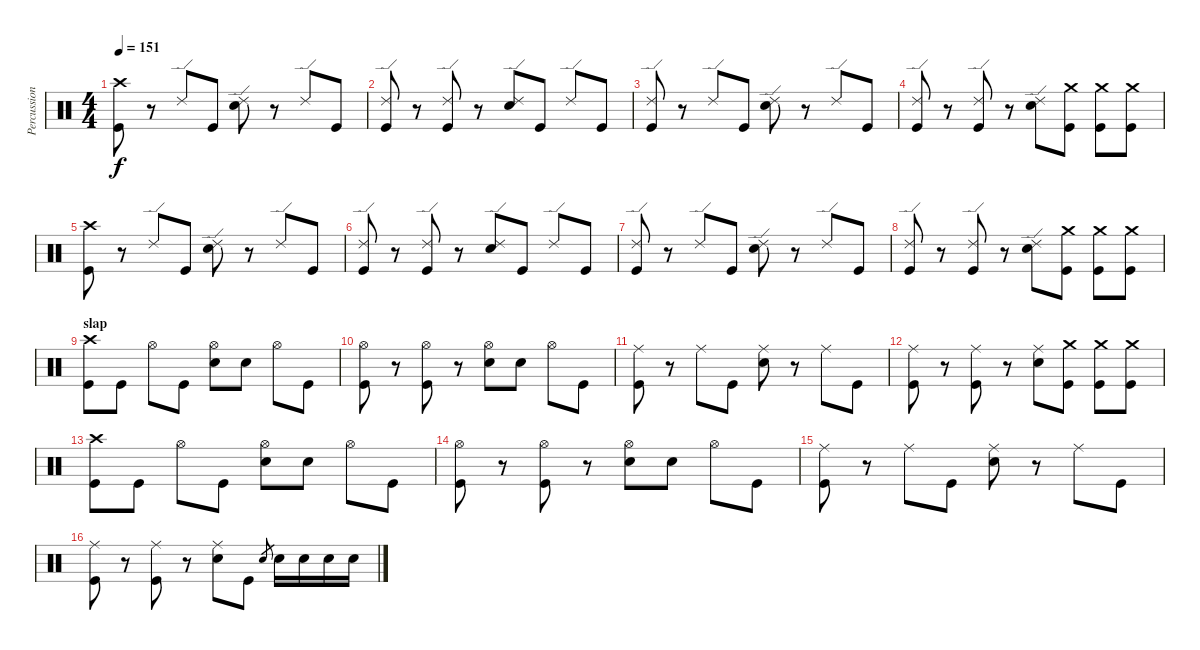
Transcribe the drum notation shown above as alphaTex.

\track ("Percussion" "Percussion") {instrument percussion}
\staff {score}
\articulation defaults
\ts (4 4)
\tempo 151
\clef neutral
\ks c
("Crash high (hit)" "Kick (hit)").8{dy f} r.8 "Ride (edge) 2".8 "Kick (hit)".8 ("Ride (edge) 2" "Electric Snare (hit)").8 r.8 "Ride (edge) 2".8 "Kick (hit)".8 |
("Ride (edge) 2" "Kick (hit)").8 r.8 ("Ride (edge) 2" "Kick (hit)").8 r.8 ("Ride (edge) 2" "Electric Snare (hit)").8 "Kick (hit)".8 "Ride (edge) 2".8 "Kick (hit)".8 |
("Ride (edge) 2" "Kick (hit)").8 r.8 "Ride (edge) 2".8 "Kick (hit)".8 ("Ride (edge) 2" "Electric Snare (hit)").8 r.8 "Ride (edge) 2".8 "Kick (hit)".8 |
("Ride (edge) 2" "Kick (hit)").8 r.8 ("Ride (edge) 2" "Kick (hit)").8 r.8 ("Ride (edge) 2" "Electric Snare (hit)").8 ("Crash medium (hit)" "Kick (hit)").8 ("Crash medium (hit)" "Kick (hit)").8 ("Crash medium (hit)" "Kick (hit)").8 |
("Crash high (hit)" "Kick (hit)").8 r.8 "Ride (edge) 2".8 "Kick (hit)".8 ("Ride (edge) 2" "Electric Snare (hit)").8 r.8 "Ride (edge) 2".8 "Kick (hit)".8 |
("Ride (edge) 2" "Kick (hit)").8 r.8 ("Ride (edge) 2" "Kick (hit)").8 r.8 ("Ride (edge) 2" "Electric Snare (hit)").8 "Kick (hit)".8 "Ride (edge) 2".8 "Kick (hit)".8 |
("Ride (edge) 2" "Kick (hit)").8 r.8 "Ride (edge) 2".8 "Kick (hit)".8 ("Ride (edge) 2" "Electric Snare (hit)").8 r.8 "Ride (edge) 2".8 "Kick (hit)".8 |
("Ride (edge) 2" "Kick (hit)").8 r.8 ("Ride (edge) 2" "Kick (hit)").8 r.8 ("Ride (edge) 2" "Electric Snare (hit)").8 ("Crash medium (hit)" "Kick (hit)").8 ("Crash medium (hit)" "Kick (hit)").8 ("Crash medium (hit)" "Kick (hit)").8 |
\section ("" "slap")
("Crash high (hit)" "Kick (hit)").8 "Kick (hit)".8 "Hi-Hat (open)".8 "Kick (hit)".8 ("Hi-Hat (open)" "Electric Snare (hit)").8 "Electric Snare (hit)".8 "Hi-Hat (open)".8 "Kick (hit)".8 |
("Hi-Hat (open)" "Kick (hit)").8 r.8 ("Hi-Hat (open)" "Kick (hit)").8 r.8 ("Hi-Hat (open)" "Electric Snare (hit)").8 "Electric Snare (hit)".8 "Hi-Hat (open)".8 "Kick (hit)".8 |
("Ride (middle)" "Kick (hit)").8 r.8 "Ride (middle)".8 "Kick (hit)".8 ("Ride (middle)" "Electric Snare (hit)").8 r.8 "Ride (middle)".8 "Kick (hit)".8 |
("Ride (middle)" "Kick (hit)").8 r.8 ("Ride (middle)" "Kick (hit)").8 r.8 ("Ride (middle)" "Electric Snare (hit)").8 ("Crash medium (hit)" "Kick (hit)").8 ("Crash medium (hit)" "Kick (hit)").8 ("Crash medium (hit)" "Kick (hit)").8 |
("Crash high (hit)" "Kick (hit)").8 "Kick (hit)".8 "Hi-Hat (open)".8 "Kick (hit)".8 ("Hi-Hat (open)" "Electric Snare (hit)").8 "Electric Snare (hit)".8 "Hi-Hat (open)".8 "Kick (hit)".8 |
("Hi-Hat (open)" "Kick (hit)").8 r.8 ("Hi-Hat (open)" "Kick (hit)").8 r.8 ("Hi-Hat (open)" "Electric Snare (hit)").8 "Electric Snare (hit)".8 "Hi-Hat (open)".8 "Kick (hit)".8 |
("Ride (middle)" "Kick (hit)").8 r.8 "Ride (middle)".8 "Kick (hit)".8 ("Ride (middle)" "Electric Snare (hit)").8 r.8 "Ride (middle)".8 "Kick (hit)".8 |
("Ride (middle)" "Kick (hit)").8 r.8 ("Ride (middle)" "Kick (hit)").8 r.8 ("Ride (middle)" "Electric Snare (hit)").8 "Kick (hit)".8 "Electric Snare (hit)".8{gr} "Electric Snare (hit)".16 "Electric Snare (hit)".16 "Electric Snare (hit)".16 "Electric Snare (hit)".16
